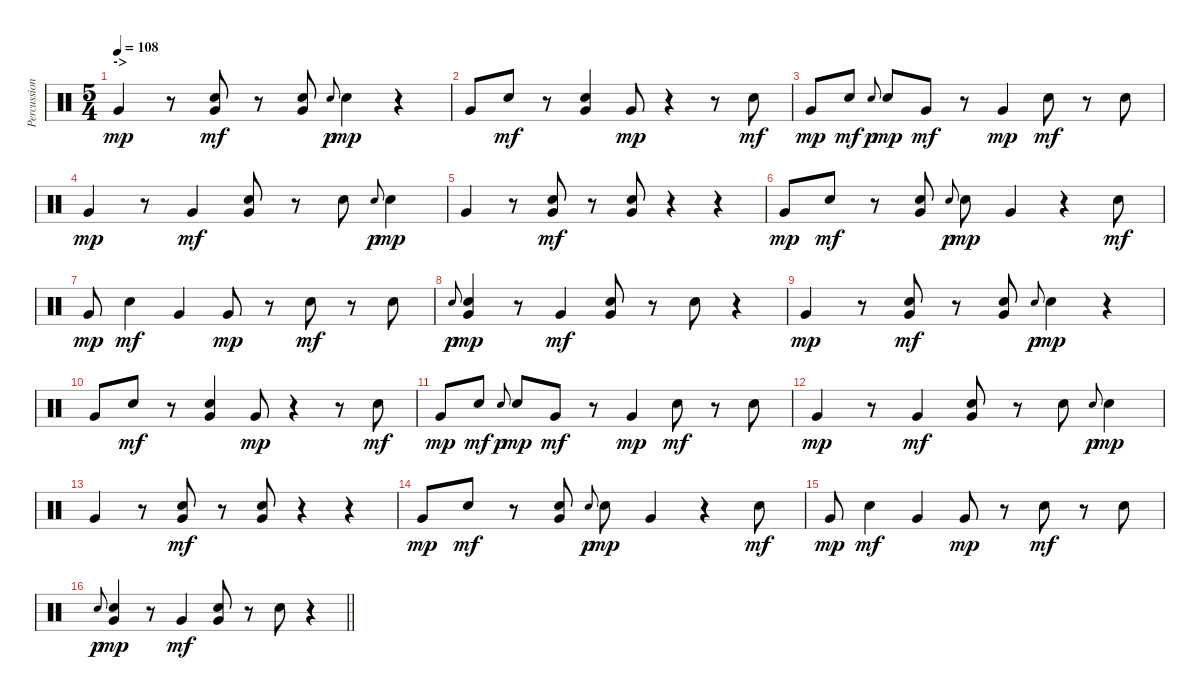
\track ("Percussion" "Percussion") {instrument percussion}
\staff {score}
\articulation defaults
\ts (5 4)
\section ("" "->")
\tempo 108
\clef neutral
\ks c "Very Low Tom (hit)".4{dy mp}
r.8 ("Very Low Tom (hit)" "Hand Clap (hit)").8{dy mf} r.8 ("Very Low Tom (hit)" "Hand Clap (hit)").8 "Snare (hit) 2".8{gr onbeat dy p} "Snare (hit) 2".4{dy mp} r.4 |
"Very Low Tom (hit)".8 "Hand Clap (hit)".8{dy mf} r.8 ("Very Low Tom (hit)" "Hand Clap (hit)").4 "Very Low Tom (hit)".8{dy mp} r.4 r.8 "Hand Clap (hit)".8{dy mf} |
"Very Low Tom (hit)".8{dy mp} "Hand Clap (hit)".8{dy mf} "Snare (hit) 2".8{gr onbeat dy p} "Snare (hit) 2".8{dy mp} "Very Low Tom (hit)".8{dy mf} r.8 "Very Low Tom (hit)".4{dy mp} "Hand Clap (hit)".8{dy mf} r.8 "Hand Clap (hit)".8 |
"Very Low Tom (hit)".4{dy mp} r.8 "Very Low Tom (hit)".4{dy mf} ("Very Low Tom (hit)" "Hand Clap (hit)").8 r.8 "Hand Clap (hit)".8 "Snare (hit) 2".8{gr onbeat dy p} "Snare (hit) 2".4{dy mp} |
"Very Low Tom (hit)".4 r.8 ("Very Low Tom (hit)" "Hand Clap (hit)").8{dy mf} r.8 ("Very Low Tom (hit)" "Hand Clap (hit)").8 r.4 r.4 |
"Very Low Tom (hit)".8{dy mp} "Hand Clap (hit)".8{dy mf} r.8 ("Very Low Tom (hit)" "Hand Clap (hit)").8 "Snare (hit) 2".8{gr onbeat dy p} "Snare (hit) 2".8{dy mp} "Very Low Tom (hit)".4 r.4 "Hand Clap (hit)".8{dy mf} |
"Very Low Tom (hit)".8{dy mp} "Hand Clap (hit)".4{dy mf} "Very Low Tom (hit)".4 "Very Low Tom (hit)".8{dy mp} r.8 "Hand Clap (hit)".8{dy mf} r.8 "Hand Clap (hit)".8 |
"Snare (hit) 2".8{gr onbeat dy p} ("Snare (hit) 2" "Very Low Tom (hit)").4{dy mp} r.8 "Very Low Tom (hit)".4{dy mf} ("Very Low Tom (hit)" "Hand Clap (hit)").8 r.8 "Hand Clap (hit)".8 r.4 |
"Very Low Tom (hit)".4{dy mp} r.8 ("Very Low Tom (hit)" "Hand Clap (hit)").8{dy mf} r.8 ("Very Low Tom (hit)" "Hand Clap (hit)").8 "Snare (hit) 2".8{gr onbeat dy p} "Snare (hit) 2".4{dy mp} r.4 |
"Very Low Tom (hit)".8 "Hand Clap (hit)".8{dy mf} r.8 ("Very Low Tom (hit)" "Hand Clap (hit)").4 "Very Low Tom (hit)".8{dy mp} r.4 r.8 "Hand Clap (hit)".8{dy mf} |
"Very Low Tom (hit)".8{dy mp} "Hand Clap (hit)".8{dy mf} "Snare (hit) 2".8{gr onbeat dy p} "Snare (hit) 2".8{dy mp} "Very Low Tom (hit)".8{dy mf} r.8 "Very Low Tom (hit)".4{dy mp} "Hand Clap (hit)".8{dy mf} r.8 "Hand Clap (hit)".8 |
"Very Low Tom (hit)".4{dy mp} r.8 "Very Low Tom (hit)".4{dy mf} ("Very Low Tom (hit)" "Hand Clap (hit)").8 r.8 "Hand Clap (hit)".8 "Snare (hit) 2".8{gr onbeat dy p} "Snare (hit) 2".4{dy mp} |
"Very Low Tom (hit)".4 r.8 ("Very Low Tom (hit)" "Hand Clap (hit)").8{dy mf} r.8 ("Very Low Tom (hit)" "Hand Clap (hit)").8 r.4 r.4 |
"Very Low Tom (hit)".8{dy mp} "Hand Clap (hit)".8{dy mf} r.8 ("Very Low Tom (hit)" "Hand Clap (hit)").8 "Snare (hit) 2".8{gr onbeat dy p} "Snare (hit) 2".8{dy mp} "Very Low Tom (hit)".4 r.4 "Hand Clap (hit)".8{dy mf} |
"Very Low Tom (hit)".8{dy mp} "Hand Clap (hit)".4{dy mf} "Very Low Tom (hit)".4 "Very Low Tom (hit)".8{dy mp} r.8 "Hand Clap (hit)".8{dy mf} r.8 "Hand Clap (hit)".8 |
\barLineRight lightlight "Snare (hit) 2".8{gr onbeat dy p}
("Snare (hit) 2" "Very Low Tom (hit)").4{dy mp} r.8 "Very Low Tom (hit)".4{dy mf} ("Very Low Tom (hit)" "Hand Clap (hit)").8 r.8 "Hand Clap (hit)".8 r.4
